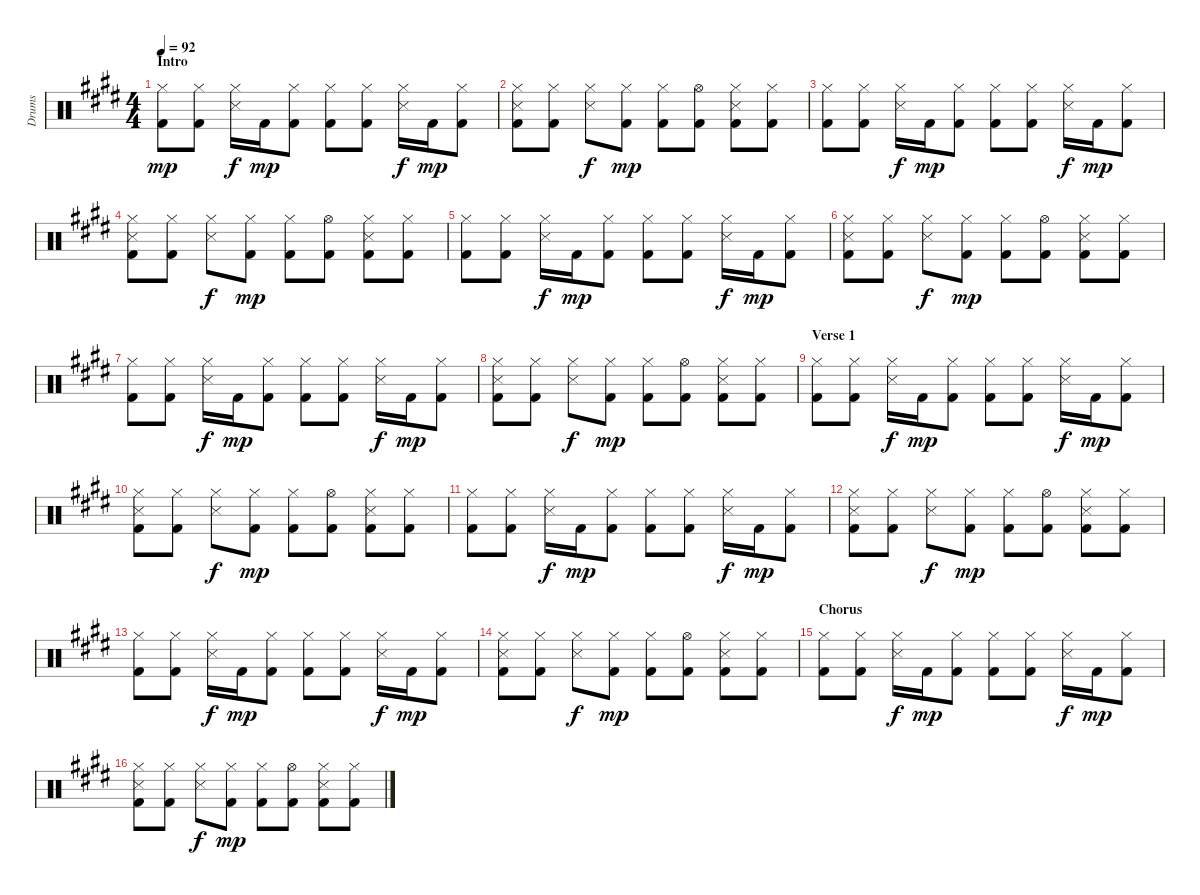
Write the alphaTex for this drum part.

\track ("Drums" "Drums") {instrument percussion}
\staff {score}
\articulation defaults
\ts (4 4)
\section ("" "Intro")
\tempo 92
\clef neutral
\ks e
("Hi-Hat (closed)" "Kick (hit) 2").8{dy mp} ("Hi-Hat (closed)" "Kick (hit) 2").8 ("Hi-Hat (closed)" "Snare (side stick) 3").16{dy f} "Kick (hit) 2".16{dy mp} ("Hi-Hat (closed)" "Kick (hit) 2").8 ("Hi-Hat (closed)" "Kick (hit) 2").8 ("Hi-Hat (closed)" "Kick (hit) 2").8 ("Hi-Hat (closed)" "Snare (side stick) 3").16{dy f} "Kick (hit) 2".16{dy mp} ("Hi-Hat (closed)" "Kick (hit) 2").8 |
("Hi-Hat (closed)" "Snare (side stick) 3" "Kick (hit) 2").8 ("Hi-Hat (closed)" "Kick (hit) 2").8 ("Hi-Hat (closed)" "Snare (side stick) 3").8{dy f} ("Hi-Hat (closed)" "Kick (hit) 2").8{dy mp} ("Hi-Hat (closed)" "Kick (hit) 2").8 ("Hi-Hat (open)" "Kick (hit) 2").8 ("Hi-Hat (closed)" "Snare (side stick) 3" "Kick (hit) 2").8 ("Hi-Hat (closed)" "Kick (hit) 2").8 |
("Hi-Hat (closed)" "Kick (hit) 2").8 ("Hi-Hat (closed)" "Kick (hit) 2").8 ("Hi-Hat (closed)" "Snare (side stick) 3").16{dy f} "Kick (hit) 2".16{dy mp} ("Hi-Hat (closed)" "Kick (hit) 2").8 ("Hi-Hat (closed)" "Kick (hit) 2").8 ("Hi-Hat (closed)" "Kick (hit) 2").8 ("Hi-Hat (closed)" "Snare (side stick) 3").16{dy f} "Kick (hit) 2".16{dy mp} ("Hi-Hat (closed)" "Kick (hit) 2").8 |
("Hi-Hat (closed)" "Snare (side stick) 3" "Kick (hit) 2").8 ("Hi-Hat (closed)" "Kick (hit) 2").8 ("Hi-Hat (closed)" "Snare (side stick) 3").8{dy f} ("Hi-Hat (closed)" "Kick (hit) 2").8{dy mp} ("Hi-Hat (closed)" "Kick (hit) 2").8 ("Hi-Hat (open)" "Kick (hit) 2").8 ("Hi-Hat (closed)" "Snare (side stick) 3" "Kick (hit) 2").8 ("Hi-Hat (closed)" "Kick (hit) 2").8 |
("Hi-Hat (closed)" "Kick (hit) 2").8 ("Hi-Hat (closed)" "Kick (hit) 2").8 ("Hi-Hat (closed)" "Snare (side stick) 3").16{dy f} "Kick (hit) 2".16{dy mp} ("Hi-Hat (closed)" "Kick (hit) 2").8 ("Hi-Hat (closed)" "Kick (hit) 2").8 ("Hi-Hat (closed)" "Kick (hit) 2").8 ("Hi-Hat (closed)" "Snare (side stick) 3").16{dy f} "Kick (hit) 2".16{dy mp} ("Hi-Hat (closed)" "Kick (hit) 2").8 |
("Hi-Hat (closed)" "Snare (side stick) 3" "Kick (hit) 2").8 ("Hi-Hat (closed)" "Kick (hit) 2").8 ("Hi-Hat (closed)" "Snare (side stick) 3").8{dy f} ("Hi-Hat (closed)" "Kick (hit) 2").8{dy mp} ("Hi-Hat (closed)" "Kick (hit) 2").8 ("Hi-Hat (open)" "Kick (hit) 2").8 ("Hi-Hat (closed)" "Snare (side stick) 3" "Kick (hit) 2").8 ("Hi-Hat (closed)" "Kick (hit) 2").8 |
("Hi-Hat (closed)" "Kick (hit) 2").8 ("Hi-Hat (closed)" "Kick (hit) 2").8 ("Hi-Hat (closed)" "Snare (side stick) 3").16{dy f} "Kick (hit) 2".16{dy mp} ("Hi-Hat (closed)" "Kick (hit) 2").8 ("Hi-Hat (closed)" "Kick (hit) 2").8 ("Hi-Hat (closed)" "Kick (hit) 2").8 ("Hi-Hat (closed)" "Snare (side stick) 3").16{dy f} "Kick (hit) 2".16{dy mp} ("Hi-Hat (closed)" "Kick (hit) 2").8 |
("Hi-Hat (closed)" "Snare (side stick) 3" "Kick (hit) 2").8 ("Hi-Hat (closed)" "Kick (hit) 2").8 ("Hi-Hat (closed)" "Snare (side stick) 3").8{dy f} ("Hi-Hat (closed)" "Kick (hit) 2").8{dy mp} ("Hi-Hat (closed)" "Kick (hit) 2").8 ("Hi-Hat (open)" "Kick (hit) 2").8 ("Hi-Hat (closed)" "Snare (side stick) 3" "Kick (hit) 2").8 ("Hi-Hat (closed)" "Kick (hit) 2").8 |
\section ("" "Verse 1")
("Hi-Hat (closed)" "Kick (hit) 2").8 ("Hi-Hat (closed)" "Kick (hit) 2").8 ("Hi-Hat (closed)" "Snare (side stick) 3").16{dy f} "Kick (hit) 2".16{dy mp} ("Hi-Hat (closed)" "Kick (hit) 2").8 ("Hi-Hat (closed)" "Kick (hit) 2").8 ("Hi-Hat (closed)" "Kick (hit) 2").8 ("Hi-Hat (closed)" "Snare (side stick) 3").16{dy f} "Kick (hit) 2".16{dy mp} ("Hi-Hat (closed)" "Kick (hit) 2").8 |
("Hi-Hat (closed)" "Snare (side stick) 3" "Kick (hit) 2").8 ("Hi-Hat (closed)" "Kick (hit) 2").8 ("Hi-Hat (closed)" "Snare (side stick) 3").8{dy f} ("Hi-Hat (closed)" "Kick (hit) 2").8{dy mp} ("Hi-Hat (closed)" "Kick (hit) 2").8 ("Hi-Hat (open)" "Kick (hit) 2").8 ("Hi-Hat (closed)" "Snare (side stick) 3" "Kick (hit) 2").8 ("Hi-Hat (closed)" "Kick (hit) 2").8 |
("Hi-Hat (closed)" "Kick (hit) 2").8 ("Hi-Hat (closed)" "Kick (hit) 2").8 ("Hi-Hat (closed)" "Snare (side stick) 3").16{dy f} "Kick (hit) 2".16{dy mp} ("Hi-Hat (closed)" "Kick (hit) 2").8 ("Hi-Hat (closed)" "Kick (hit) 2").8 ("Hi-Hat (closed)" "Kick (hit) 2").8 ("Hi-Hat (closed)" "Snare (side stick) 3").16{dy f} "Kick (hit) 2".16{dy mp} ("Hi-Hat (closed)" "Kick (hit) 2").8 |
("Hi-Hat (closed)" "Snare (side stick) 3" "Kick (hit) 2").8 ("Hi-Hat (closed)" "Kick (hit) 2").8 ("Hi-Hat (closed)" "Snare (side stick) 3").8{dy f} ("Hi-Hat (closed)" "Kick (hit) 2").8{dy mp} ("Hi-Hat (closed)" "Kick (hit) 2").8 ("Hi-Hat (open)" "Kick (hit) 2").8 ("Hi-Hat (closed)" "Snare (side stick) 3" "Kick (hit) 2").8 ("Hi-Hat (closed)" "Kick (hit) 2").8 |
("Hi-Hat (closed)" "Kick (hit) 2").8 ("Hi-Hat (closed)" "Kick (hit) 2").8 ("Hi-Hat (closed)" "Snare (side stick) 3").16{dy f} "Kick (hit) 2".16{dy mp} ("Hi-Hat (closed)" "Kick (hit) 2").8 ("Hi-Hat (closed)" "Kick (hit) 2").8 ("Hi-Hat (closed)" "Kick (hit) 2").8 ("Hi-Hat (closed)" "Snare (side stick) 3").16{dy f} "Kick (hit) 2".16{dy mp} ("Hi-Hat (closed)" "Kick (hit) 2").8 |
("Hi-Hat (closed)" "Snare (side stick) 3" "Kick (hit) 2").8 ("Hi-Hat (closed)" "Kick (hit) 2").8 ("Hi-Hat (closed)" "Snare (side stick) 3").8{dy f} ("Hi-Hat (closed)" "Kick (hit) 2").8{dy mp} ("Hi-Hat (closed)" "Kick (hit) 2").8 ("Hi-Hat (open)" "Kick (hit) 2").8 ("Hi-Hat (closed)" "Snare (side stick) 3" "Kick (hit) 2").8 ("Hi-Hat (closed)" "Kick (hit) 2").8 |
\section ("" "Chorus")
("Hi-Hat (closed)" "Kick (hit) 2").8 ("Hi-Hat (closed)" "Kick (hit) 2").8 ("Hi-Hat (closed)" "Snare (side stick) 3").16{dy f} "Kick (hit) 2".16{dy mp} ("Hi-Hat (closed)" "Kick (hit) 2").8 ("Hi-Hat (closed)" "Kick (hit) 2").8 ("Hi-Hat (closed)" "Kick (hit) 2").8 ("Hi-Hat (closed)" "Snare (side stick) 3").16{dy f} "Kick (hit) 2".16{dy mp} ("Hi-Hat (closed)" "Kick (hit) 2").8 |
("Hi-Hat (closed)" "Snare (side stick) 3" "Kick (hit) 2").8 ("Hi-Hat (closed)" "Kick (hit) 2").8 ("Hi-Hat (closed)" "Snare (side stick) 3").8{dy f} ("Hi-Hat (closed)" "Kick (hit) 2").8{dy mp} ("Hi-Hat (closed)" "Kick (hit) 2").8 ("Hi-Hat (open)" "Kick (hit) 2").8 ("Hi-Hat (closed)" "Snare (side stick) 3" "Kick (hit) 2").8 ("Hi-Hat (closed)" "Kick (hit) 2").8
